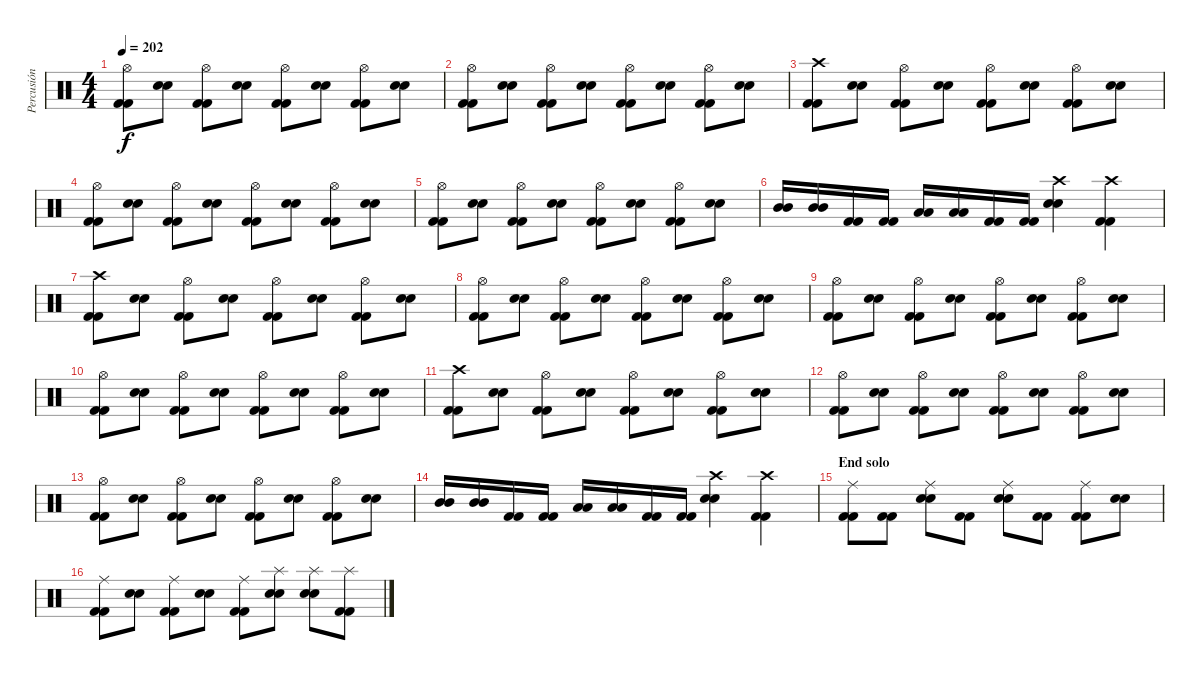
\track ("Percusión" "Percusión") {instrument percussion}
\staff {score}
\articulation defaults
\ts (4 4)
\tempo 202
\clef neutral
\ks c
("Hi-Hat (open)" "Kick (hit) 2" "Kick (hit) 2").8{dy f} ("Snare (hit) 2" "Snare (hit) 2").8 ("Hi-Hat (open)" "Kick (hit) 2" "Kick (hit) 2").8 ("Snare (hit) 2" "Snare (hit) 2").8 ("Hi-Hat (open)" "Kick (hit) 2" "Kick (hit) 2").8 ("Snare (hit) 2" "Snare (hit) 2").8 ("Hi-Hat (open)" "Kick (hit) 2" "Kick (hit) 2").8 ("Snare (hit) 2" "Snare (hit) 2").8 |
("Hi-Hat (open)" "Kick (hit) 2" "Kick (hit) 2").8 ("Snare (hit) 2" "Snare (hit) 2").8 ("Hi-Hat (open)" "Kick (hit) 2" "Kick (hit) 2").8 ("Snare (hit) 2" "Snare (hit) 2").8 ("Hi-Hat (open)" "Kick (hit) 2" "Kick (hit) 2").8 ("Snare (hit) 2" "Snare (hit) 2").8 ("Hi-Hat (open)" "Kick (hit) 2" "Kick (hit) 2").8 ("Snare (hit) 2" "Snare (hit) 2").8 |
("Crash high (hit)" "Kick (hit) 2" "Kick (hit) 2").8 ("Snare (hit) 2" "Snare (hit) 2").8 ("Hi-Hat (open)" "Kick (hit) 2" "Kick (hit) 2").8 ("Snare (hit) 2" "Snare (hit) 2").8 ("Hi-Hat (open)" "Kick (hit) 2" "Kick (hit) 2").8 ("Snare (hit) 2" "Snare (hit) 2").8 ("Hi-Hat (open)" "Kick (hit) 2" "Kick (hit) 2").8 ("Snare (hit) 2" "Snare (hit) 2").8 |
("Hi-Hat (open)" "Kick (hit) 2" "Kick (hit) 2").8 ("Snare (hit) 2" "Snare (hit) 2").8 ("Hi-Hat (open)" "Kick (hit) 2" "Kick (hit) 2").8 ("Snare (hit) 2" "Snare (hit) 2").8 ("Hi-Hat (open)" "Kick (hit) 2" "Kick (hit) 2").8 ("Snare (hit) 2" "Snare (hit) 2").8 ("Hi-Hat (open)" "Kick (hit) 2" "Kick (hit) 2").8 ("Snare (hit) 2" "Snare (hit) 2").8 |
("Hi-Hat (open)" "Kick (hit) 2" "Kick (hit) 2").8 ("Snare (hit) 2" "Snare (hit) 2").8 ("Hi-Hat (open)" "Kick (hit) 2" "Kick (hit) 2").8 ("Snare (hit) 2" "Snare (hit) 2").8 ("Hi-Hat (open)" "Kick (hit) 2" "Kick (hit) 2").8 ("Snare (hit) 2" "Snare (hit) 2").8 ("Hi-Hat (open)" "Kick (hit) 2" "Kick (hit) 2").8 ("Snare (hit) 2" "Snare (hit) 2").8 |
("Mid Tom (hit)" "Mid Tom (hit)").16 ("Mid Tom (hit)" "Mid Tom (hit)").16 ("Kick (hit) 2" "Kick (hit) 2").16 ("Kick (hit) 2" "Kick (hit) 2").16 ("Low Tom (hit)" "Low Tom (hit)").16 ("Low Tom (hit)" "Low Tom (hit)").16 ("Kick (hit) 2" "Kick (hit) 2").16 ("Kick (hit) 2" "Kick (hit) 2").16 ("Crash high (hit)" "Snare (hit) 2" "Snare (hit) 2").4 ("Crash high (hit)" "Kick (hit) 2" "Kick (hit) 2").4 |
("Crash high (hit)" "Kick (hit) 2" "Kick (hit) 2").8 ("Snare (hit) 2" "Snare (hit) 2").8 ("Hi-Hat (open)" "Kick (hit) 2" "Kick (hit) 2").8 ("Snare (hit) 2" "Snare (hit) 2").8 ("Hi-Hat (open)" "Kick (hit) 2" "Kick (hit) 2").8 ("Snare (hit) 2" "Snare (hit) 2").8 ("Hi-Hat (open)" "Kick (hit) 2" "Kick (hit) 2").8 ("Snare (hit) 2" "Snare (hit) 2").8 |
("Hi-Hat (open)" "Kick (hit) 2" "Kick (hit) 2").8 ("Snare (hit) 2" "Snare (hit) 2").8 ("Hi-Hat (open)" "Kick (hit) 2" "Kick (hit) 2").8 ("Snare (hit) 2" "Snare (hit) 2").8 ("Hi-Hat (open)" "Kick (hit) 2" "Kick (hit) 2").8 ("Snare (hit) 2" "Snare (hit) 2").8 ("Hi-Hat (open)" "Kick (hit) 2" "Kick (hit) 2").8 ("Snare (hit) 2" "Snare (hit) 2").8 |
("Hi-Hat (open)" "Kick (hit) 2" "Kick (hit) 2").8 ("Snare (hit) 2" "Snare (hit) 2").8 ("Hi-Hat (open)" "Kick (hit) 2" "Kick (hit) 2").8 ("Snare (hit) 2" "Snare (hit) 2").8 ("Hi-Hat (open)" "Kick (hit) 2" "Kick (hit) 2").8 ("Snare (hit) 2" "Snare (hit) 2").8 ("Hi-Hat (open)" "Kick (hit) 2" "Kick (hit) 2").8 ("Snare (hit) 2" "Snare (hit) 2").8 |
("Hi-Hat (open)" "Kick (hit) 2" "Kick (hit) 2").8 ("Snare (hit) 2" "Snare (hit) 2").8 ("Hi-Hat (open)" "Kick (hit) 2" "Kick (hit) 2").8 ("Snare (hit) 2" "Snare (hit) 2").8 ("Hi-Hat (open)" "Kick (hit) 2" "Kick (hit) 2").8 ("Snare (hit) 2" "Snare (hit) 2").8 ("Hi-Hat (open)" "Kick (hit) 2" "Kick (hit) 2").8 ("Snare (hit) 2" "Snare (hit) 2").8 |
("Crash high (hit)" "Kick (hit) 2" "Kick (hit) 2").8 ("Snare (hit) 2" "Snare (hit) 2").8 ("Hi-Hat (open)" "Kick (hit) 2" "Kick (hit) 2").8 ("Snare (hit) 2" "Snare (hit) 2").8 ("Hi-Hat (open)" "Kick (hit) 2" "Kick (hit) 2").8 ("Snare (hit) 2" "Snare (hit) 2").8 ("Hi-Hat (open)" "Kick (hit) 2" "Kick (hit) 2").8 ("Snare (hit) 2" "Snare (hit) 2").8 |
("Hi-Hat (open)" "Kick (hit) 2" "Kick (hit) 2").8 ("Snare (hit) 2" "Snare (hit) 2").8 ("Hi-Hat (open)" "Kick (hit) 2" "Kick (hit) 2").8 ("Snare (hit) 2" "Snare (hit) 2").8 ("Hi-Hat (open)" "Kick (hit) 2" "Kick (hit) 2").8 ("Snare (hit) 2" "Snare (hit) 2").8 ("Hi-Hat (open)" "Kick (hit) 2" "Kick (hit) 2").8 ("Snare (hit) 2" "Snare (hit) 2").8 |
("Hi-Hat (open)" "Kick (hit) 2" "Kick (hit) 2").8 ("Snare (hit) 2" "Snare (hit) 2").8 ("Hi-Hat (open)" "Kick (hit) 2" "Kick (hit) 2").8 ("Snare (hit) 2" "Snare (hit) 2").8 ("Hi-Hat (open)" "Kick (hit) 2" "Kick (hit) 2").8 ("Snare (hit) 2" "Snare (hit) 2").8 ("Hi-Hat (open)" "Kick (hit) 2" "Kick (hit) 2").8 ("Snare (hit) 2" "Snare (hit) 2").8 |
("Mid Tom (hit)" "Mid Tom (hit)").16 ("Mid Tom (hit)" "Mid Tom (hit)").16 ("Kick (hit) 2" "Kick (hit) 2").16 ("Kick (hit) 2" "Kick (hit) 2").16 ("Low Tom (hit)" "Low Tom (hit)").16 ("Low Tom (hit)" "Low Tom (hit)").16 ("Kick (hit) 2" "Kick (hit) 2").16 ("Kick (hit) 2" "Kick (hit) 2").16 ("Crash high (hit)" "Snare (hit) 2" "Snare (hit) 2").4 ("Crash high (hit)" "Kick (hit) 2" "Kick (hit) 2").4 |
\section ("" "End solo")
("Ride (middle)" "Kick (hit) 2" "Kick (hit) 2").8 ("Kick (hit) 2" "Kick (hit) 2").8 ("Ride (middle)" "Snare (hit) 2" "Snare (hit) 2").8 ("Kick (hit) 2" "Kick (hit) 2").8 ("Ride (middle)" "Snare (hit) 2" "Snare (hit) 2").8 ("Kick (hit) 2" "Kick (hit) 2").8 ("Ride (middle)" "Kick (hit) 2" "Kick (hit) 2").8 ("Snare (hit) 2" "Snare (hit) 2").8 |
("Ride (middle)" "Kick (hit) 2" "Kick (hit) 2").8 ("Snare (hit) 2" "Snare (hit) 2").8 ("Ride (middle)" "Kick (hit) 2" "Kick (hit) 2").8 ("Snare (hit) 2" "Snare (hit) 2").8 ("Ride (middle)" "Kick (hit) 2" "Kick (hit) 2").8 ("Splash (hit)" "Snare (hit) 2" "Snare (hit) 2").8 ("Splash (hit)" "Snare (hit) 2" "Snare (hit) 2").8 ("Splash (hit)" "Kick (hit) 2" "Kick (hit) 2").8
